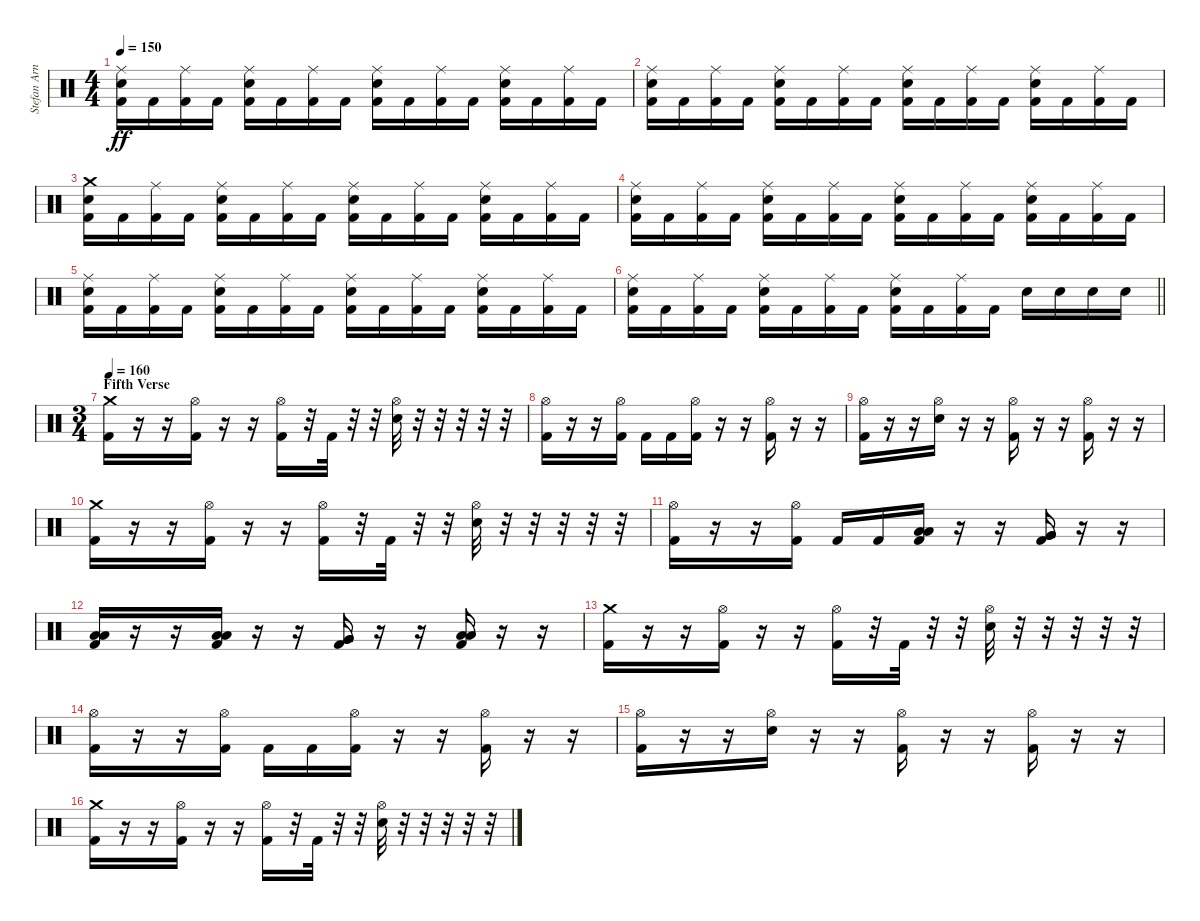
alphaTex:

\track ("Stefan Arnold" "Stefan Arn") {instrument percussion}
\staff {score}
\articulation defaults
\ts (4 4)
\tempo 150
\clef neutral
\ks c
("Ride (middle)" "Electric Snare (hit)" "Kick (hit) 2").16{dy ff} "Kick (hit) 2".16 ("Ride (middle)" "Kick (hit) 2").16 "Kick (hit) 2".16 ("Ride (middle)" "Electric Snare (hit)" "Kick (hit) 2").16 "Kick (hit) 2".16 ("Ride (middle)" "Kick (hit) 2").16 "Kick (hit) 2".16 ("Ride (middle)" "Electric Snare (hit)" "Kick (hit) 2").16 "Kick (hit) 2".16 ("Ride (middle)" "Kick (hit) 2").16 "Kick (hit) 2".16 ("Ride (middle)" "Electric Snare (hit)" "Kick (hit) 2").16 "Kick (hit) 2".16 ("Ride (middle)" "Kick (hit) 2").16 "Kick (hit) 2".16 |
("Ride (middle)" "Electric Snare (hit)" "Kick (hit) 2").16 "Kick (hit) 2".16 ("Ride (middle)" "Kick (hit) 2").16 "Kick (hit) 2".16 ("Ride (middle)" "Electric Snare (hit)" "Kick (hit) 2").16 "Kick (hit) 2".16 ("Ride (middle)" "Kick (hit) 2").16 "Kick (hit) 2".16 ("Ride (middle)" "Electric Snare (hit)" "Kick (hit) 2").16 "Kick (hit) 2".16 ("Ride (middle)" "Kick (hit) 2").16 "Kick (hit) 2".16 ("Ride (middle)" "Electric Snare (hit)" "Kick (hit) 2").16 "Kick (hit) 2".16 ("Ride (middle)" "Kick (hit) 2").16 "Kick (hit) 2".16 |
("Crash medium (hit)" "Electric Snare (hit)" "Kick (hit) 2").16 "Kick (hit) 2".16 ("Ride (middle)" "Kick (hit) 2").16 "Kick (hit) 2".16 ("Ride (middle)" "Electric Snare (hit)" "Kick (hit) 2").16 "Kick (hit) 2".16 ("Ride (middle)" "Kick (hit) 2").16 "Kick (hit) 2".16 ("Ride (middle)" "Electric Snare (hit)" "Kick (hit) 2").16 "Kick (hit) 2".16 ("Ride (middle)" "Kick (hit) 2").16 "Kick (hit) 2".16 ("Ride (middle)" "Electric Snare (hit)" "Kick (hit) 2").16 "Kick (hit) 2".16 ("Ride (middle)" "Kick (hit) 2").16 "Kick (hit) 2".16 |
("Ride (middle)" "Electric Snare (hit)" "Kick (hit) 2").16 "Kick (hit) 2".16 ("Ride (middle)" "Kick (hit) 2").16 "Kick (hit) 2".16 ("Ride (middle)" "Electric Snare (hit)" "Kick (hit) 2").16 "Kick (hit) 2".16 ("Ride (middle)" "Kick (hit) 2").16 "Kick (hit) 2".16 ("Ride (middle)" "Electric Snare (hit)" "Kick (hit) 2").16 "Kick (hit) 2".16 ("Ride (middle)" "Kick (hit) 2").16 "Kick (hit) 2".16 ("Ride (middle)" "Electric Snare (hit)" "Kick (hit) 2").16 "Kick (hit) 2".16 ("Ride (middle)" "Kick (hit) 2").16 "Kick (hit) 2".16 |
("Ride (middle)" "Electric Snare (hit)" "Kick (hit) 2").16 "Kick (hit) 2".16 ("Ride (middle)" "Kick (hit) 2").16 "Kick (hit) 2".16 ("Ride (middle)" "Electric Snare (hit)" "Kick (hit) 2").16 "Kick (hit) 2".16 ("Ride (middle)" "Kick (hit) 2").16 "Kick (hit) 2".16 ("Ride (middle)" "Electric Snare (hit)" "Kick (hit) 2").16 "Kick (hit) 2".16 ("Ride (middle)" "Kick (hit) 2").16 "Kick (hit) 2".16 ("Ride (middle)" "Electric Snare (hit)" "Kick (hit) 2").16 "Kick (hit) 2".16 ("Ride (middle)" "Kick (hit) 2").16 "Kick (hit) 2".16 |
\barLineRight lightlight
("Ride (middle)" "Electric Snare (hit)" "Kick (hit) 2").16 "Kick (hit) 2".16 ("Ride (middle)" "Kick (hit) 2").16 "Kick (hit) 2".16 ("Ride (middle)" "Electric Snare (hit)" "Kick (hit) 2").16 "Kick (hit) 2".16 ("Ride (middle)" "Kick (hit) 2").16 "Kick (hit) 2".16 ("Ride (middle)" "Electric Snare (hit)" "Kick (hit) 2").16 "Kick (hit) 2".16 ("Ride (middle)" "Kick (hit) 2").16 "Kick (hit) 2".16 "Electric Snare (hit)".16 "Electric Snare (hit)".16 "Electric Snare (hit)".16 "Electric Snare (hit)".16 |
\ts (3 4)
\section ("" "Fifth Verse")
\tempo 160
("Crash medium (hit)" "Kick (hit) 2").16 r.16 r.16 ("Hi-Hat (open)" "Kick (hit) 2").16 r.16 r.16 ("Hi-Hat (open)" "Kick (hit) 2").16 r.32 "Kick (hit) 2".32 r.32 r.32 ("Hi-Hat (open)" "Electric Snare (hit)").32 r.32 r.32 r.32 r.32 r.32 |
("Hi-Hat (open)" "Kick (hit) 2").16 r.16 r.16 ("Hi-Hat (open)" "Kick (hit) 2").16 "Kick (hit) 2".16 "Kick (hit) 2".16 ("Hi-Hat (open)" "Kick (hit) 2").16 r.16 r.16 ("Hi-Hat (open)" "Kick (hit) 2").16 r.16 r.16 |
("Hi-Hat (open)" "Kick (hit) 2").16 r.16 r.16 ("Hi-Hat (open)" "Electric Snare (hit)").16 r.16 r.16 ("Hi-Hat (open)" "Kick (hit) 2").16 r.16 r.16 ("Hi-Hat (open)" "Kick (hit) 2").16 r.16 r.16 |
("Crash medium (hit)" "Kick (hit) 2").16 r.16 r.16 ("Hi-Hat (open)" "Kick (hit) 2").16 r.16 r.16 ("Hi-Hat (open)" "Kick (hit) 2").16 r.32 "Kick (hit) 2".32 r.32 r.32 ("Hi-Hat (open)" "Electric Snare (hit)").32 r.32 r.32 r.32 r.32 r.32 |
("Hi-Hat (open)" "Kick (hit) 2").16 r.16 r.16 ("Hi-Hat (open)" "Kick (hit) 2").16 "Kick (hit) 2".16 "Kick (hit) 2".16 ("Low Tom (hit)" "Low Tom (hit)" "Kick (hit) 2").16 r.16 r.16 ("Very Low Tom (hit)" "Very Low Tom (hit)" "Kick (hit) 2").16 r.16 r.16 |
("Low Floor Tom (hit)" "Low Floor Tom (hit)" "Kick (hit) 2").16 r.16 r.16 ("Low Tom (hit)" "Low Tom (hit)" "Kick (hit) 2").16 r.16 r.16 ("Very Low Tom (hit)" "Very Low Tom (hit)" "Kick (hit) 2").16 r.16 r.16 ("Low Floor Tom (hit)" "Low Floor Tom (hit)" "Kick (hit) 2").16 r.16 r.16 |
("Crash medium (hit)" "Kick (hit) 2").16 r.16 r.16 ("Hi-Hat (open)" "Kick (hit) 2").16 r.16 r.16 ("Hi-Hat (open)" "Kick (hit) 2").16 r.32 "Kick (hit) 2".32 r.32 r.32 ("Hi-Hat (open)" "Electric Snare (hit)").32 r.32 r.32 r.32 r.32 r.32 |
("Hi-Hat (open)" "Kick (hit) 2").16 r.16 r.16 ("Hi-Hat (open)" "Kick (hit) 2").16 "Kick (hit) 2".16 "Kick (hit) 2".16 ("Hi-Hat (open)" "Kick (hit) 2").16 r.16 r.16 ("Hi-Hat (open)" "Kick (hit) 2").16 r.16 r.16 |
("Hi-Hat (open)" "Kick (hit) 2").16 r.16 r.16 ("Hi-Hat (open)" "Electric Snare (hit)").16 r.16 r.16 ("Hi-Hat (open)" "Kick (hit) 2").16 r.16 r.16 ("Hi-Hat (open)" "Kick (hit) 2").16 r.16 r.16 |
("Crash medium (hit)" "Kick (hit) 2").16 r.16 r.16 ("Hi-Hat (open)" "Kick (hit) 2").16 r.16 r.16 ("Hi-Hat (open)" "Kick (hit) 2").16 r.32 "Kick (hit) 2".32 r.32 r.32 ("Hi-Hat (open)" "Electric Snare (hit)").32 r.32 r.32 r.32 r.32 r.32
